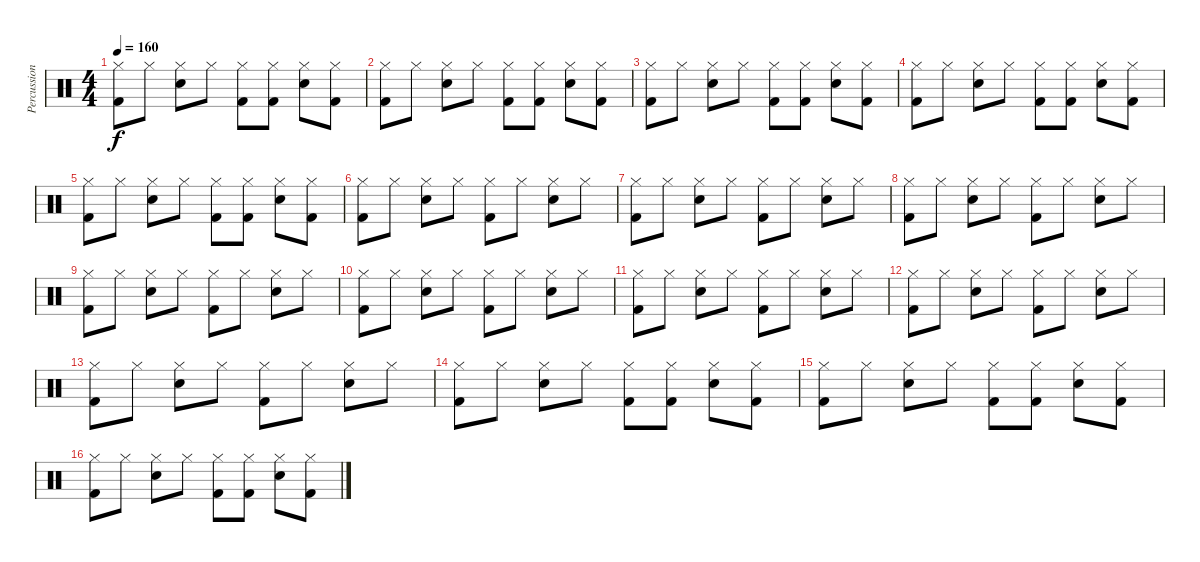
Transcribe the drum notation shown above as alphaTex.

\track ("Percussion" "Percussion") {instrument percussion}
\staff {score}
\articulation defaults
\ts (4 4)
\tempo 160
\clef neutral
\ks c
("Hi-Hat (closed)" "Kick (hit) 2").8{dy f} "Hi-Hat (closed)".8 ("Hi-Hat (closed)" "Snare (hit) 2").8 "Hi-Hat (closed)".8 ("Hi-Hat (closed)" "Kick (hit) 2").8 ("Hi-Hat (closed)" "Kick (hit) 2").8 ("Hi-Hat (closed)" "Snare (hit) 2").8 ("Hi-Hat (closed)" "Kick (hit) 2").8 |
("Hi-Hat (closed)" "Kick (hit) 2").8 "Hi-Hat (closed)".8 ("Hi-Hat (closed)" "Snare (hit) 2").8 "Hi-Hat (closed)".8 ("Hi-Hat (closed)" "Kick (hit) 2").8 ("Hi-Hat (closed)" "Kick (hit) 2").8 ("Hi-Hat (closed)" "Snare (hit) 2").8 ("Hi-Hat (closed)" "Kick (hit) 2").8 |
("Hi-Hat (closed)" "Kick (hit) 2").8 "Hi-Hat (closed)".8 ("Hi-Hat (closed)" "Snare (hit) 2").8 "Hi-Hat (closed)".8 ("Hi-Hat (closed)" "Kick (hit) 2").8 ("Hi-Hat (closed)" "Kick (hit) 2").8 ("Hi-Hat (closed)" "Snare (hit) 2").8 ("Hi-Hat (closed)" "Kick (hit) 2").8 |
("Hi-Hat (closed)" "Kick (hit) 2").8 "Hi-Hat (closed)".8 ("Hi-Hat (closed)" "Snare (hit) 2").8 "Hi-Hat (closed)".8 ("Hi-Hat (closed)" "Kick (hit) 2").8 ("Hi-Hat (closed)" "Kick (hit) 2").8 ("Hi-Hat (closed)" "Snare (hit) 2").8 ("Hi-Hat (closed)" "Kick (hit) 2").8 |
("Hi-Hat (closed)" "Kick (hit) 2").8 "Hi-Hat (closed)".8 ("Hi-Hat (closed)" "Snare (hit) 2").8 "Hi-Hat (closed)".8 ("Hi-Hat (closed)" "Kick (hit) 2").8 ("Hi-Hat (closed)" "Kick (hit) 2").8 ("Hi-Hat (closed)" "Snare (hit) 2").8 ("Hi-Hat (closed)" "Kick (hit) 2").8 |
("Hi-Hat (closed)" "Kick (hit) 2").8 "Hi-Hat (closed)".8 ("Hi-Hat (closed)" "Snare (hit) 2").8 "Hi-Hat (closed)".8 ("Hi-Hat (closed)" "Kick (hit) 2").8 "Hi-Hat (closed)".8 ("Hi-Hat (closed)" "Snare (hit) 2").8 "Hi-Hat (closed)".8 |
("Hi-Hat (closed)" "Kick (hit) 2").8 "Hi-Hat (closed)".8 ("Hi-Hat (closed)" "Snare (hit) 2").8 "Hi-Hat (closed)".8 ("Hi-Hat (closed)" "Kick (hit) 2").8 "Hi-Hat (closed)".8 ("Hi-Hat (closed)" "Snare (hit) 2").8 "Hi-Hat (closed)".8 |
("Hi-Hat (closed)" "Kick (hit) 2").8 "Hi-Hat (closed)".8 ("Hi-Hat (closed)" "Snare (hit) 2").8 "Hi-Hat (closed)".8 ("Hi-Hat (closed)" "Kick (hit) 2").8 "Hi-Hat (closed)".8 ("Hi-Hat (closed)" "Snare (hit) 2").8 "Hi-Hat (closed)".8 |
("Hi-Hat (closed)" "Kick (hit) 2").8 "Hi-Hat (closed)".8 ("Hi-Hat (closed)" "Snare (hit) 2").8 "Hi-Hat (closed)".8 ("Hi-Hat (closed)" "Kick (hit) 2").8 "Hi-Hat (closed)".8 ("Hi-Hat (closed)" "Snare (hit) 2").8 "Hi-Hat (closed)".8 |
("Hi-Hat (closed)" "Kick (hit) 2").8 "Hi-Hat (closed)".8 ("Hi-Hat (closed)" "Snare (hit) 2").8 "Hi-Hat (closed)".8 ("Hi-Hat (closed)" "Kick (hit) 2").8 "Hi-Hat (closed)".8 ("Hi-Hat (closed)" "Snare (hit) 2").8 "Hi-Hat (closed)".8 |
("Hi-Hat (closed)" "Kick (hit) 2").8 "Hi-Hat (closed)".8 ("Hi-Hat (closed)" "Snare (hit) 2").8 "Hi-Hat (closed)".8 ("Hi-Hat (closed)" "Kick (hit) 2").8 "Hi-Hat (closed)".8 ("Hi-Hat (closed)" "Snare (hit) 2").8 "Hi-Hat (closed)".8 |
("Hi-Hat (closed)" "Kick (hit) 2").8 "Hi-Hat (closed)".8 ("Hi-Hat (closed)" "Snare (hit) 2").8 "Hi-Hat (closed)".8 ("Hi-Hat (closed)" "Kick (hit) 2").8 "Hi-Hat (closed)".8 ("Hi-Hat (closed)" "Snare (hit) 2").8 "Hi-Hat (closed)".8 |
("Hi-Hat (closed)" "Kick (hit) 2").8 "Hi-Hat (closed)".8 ("Hi-Hat (closed)" "Snare (hit) 2").8 "Hi-Hat (closed)".8 ("Hi-Hat (closed)" "Kick (hit) 2").8 "Hi-Hat (closed)".8 ("Hi-Hat (closed)" "Snare (hit) 2").8 "Hi-Hat (closed)".8 |
("Hi-Hat (closed)" "Kick (hit) 2").8 "Hi-Hat (closed)".8 ("Hi-Hat (closed)" "Snare (hit) 2").8 "Hi-Hat (closed)".8 ("Hi-Hat (closed)" "Kick (hit) 2").8 ("Hi-Hat (closed)" "Kick (hit) 2").8 ("Hi-Hat (closed)" "Snare (hit) 2").8 ("Hi-Hat (closed)" "Kick (hit) 2").8 |
("Hi-Hat (closed)" "Kick (hit) 2").8 "Hi-Hat (closed)".8 ("Hi-Hat (closed)" "Snare (hit) 2").8 "Hi-Hat (closed)".8 ("Hi-Hat (closed)" "Kick (hit) 2").8 ("Hi-Hat (closed)" "Kick (hit) 2").8 ("Hi-Hat (closed)" "Snare (hit) 2").8 ("Hi-Hat (closed)" "Kick (hit) 2").8 |
("Hi-Hat (closed)" "Kick (hit) 2").8 "Hi-Hat (closed)".8 ("Hi-Hat (closed)" "Snare (hit) 2").8 "Hi-Hat (closed)".8 ("Hi-Hat (closed)" "Kick (hit) 2").8 ("Hi-Hat (closed)" "Kick (hit) 2").8 ("Hi-Hat (closed)" "Snare (hit) 2").8 ("Hi-Hat (closed)" "Kick (hit) 2").8
